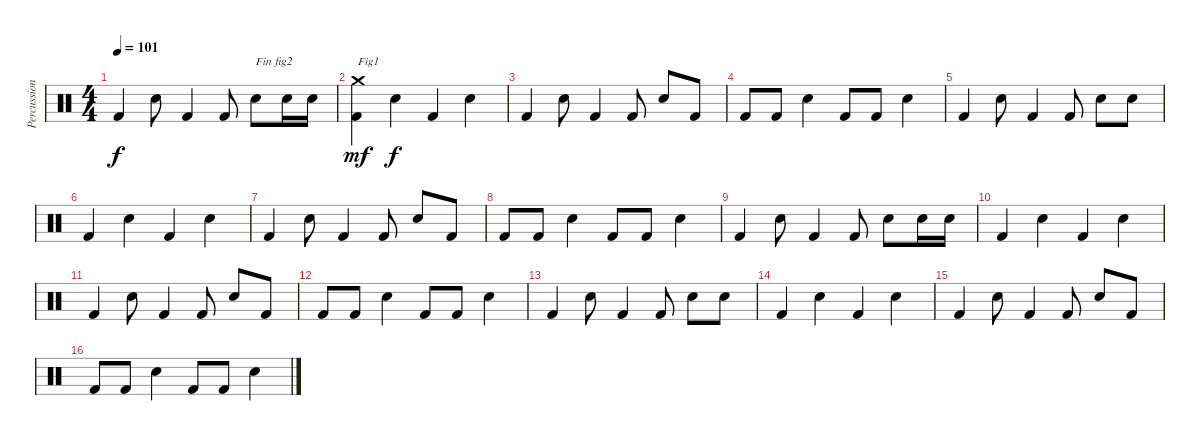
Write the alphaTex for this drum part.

\track ("Percussions" "Percussion") {instrument percussion}
\staff {score}
\articulation defaults
\ts (4 4)
\tempo 101
\clef neutral
\ks c "Kick (hit) 2".4{dy f} "Snare (hit) 2".8 "Kick (hit) 2".4 "Kick (hit) 2".8 "Snare (hit) 2".8{txt "Fin fig2"} "Snare (hit) 2".16 "Snare (hit) 2".16
|
("Kick (hit) 2" "Crash medium (hit)").4{txt "Fig1" dy mf} "Snare (hit) 2".4{dy f} "Kick (hit) 2".4 "Snare (hit) 2".4 |
"Kick (hit) 2".4 "Snare (hit) 2".8 "Kick (hit) 2".4 "Kick (hit) 2".8 "Snare (hit) 2".8 "Kick (hit) 2".8 |
"Kick (hit) 2".8 "Kick (hit) 2".8 "Snare (hit) 2".4 "Kick (hit) 2".8 "Kick (hit) 2".8 "Snare (hit) 2".4 |
"Kick (hit) 2".4 "Snare (hit) 2".8 "Kick (hit) 2".4 "Kick (hit) 2".8 "Snare (hit) 2".8 "Snare (hit) 2".8 |
"Kick (hit) 2".4 "Snare (hit) 2".4 "Kick (hit) 2".4 "Snare (hit) 2".4 |
"Kick (hit) 2".4 "Snare (hit) 2".8 "Kick (hit) 2".4 "Kick (hit) 2".8 "Snare (hit) 2".8 "Kick (hit) 2".8 |
"Kick (hit) 2".8 "Kick (hit) 2".8 "Snare (hit) 2".4 "Kick (hit) 2".8 "Kick (hit) 2".8 "Snare (hit) 2".4 |
"Kick (hit) 2".4 "Snare (hit) 2".8 "Kick (hit) 2".4 "Kick (hit) 2".8 "Snare (hit) 2".8 "Snare (hit) 2".16 "Snare (hit) 2".16 |
"Kick (hit) 2".4 "Snare (hit) 2".4 "Kick (hit) 2".4 "Snare (hit) 2".4 |
"Kick (hit) 2".4 "Snare (hit) 2".8 "Kick (hit) 2".4 "Kick (hit) 2".8 "Snare (hit) 2".8 "Kick (hit) 2".8 |
"Kick (hit) 2".8 "Kick (hit) 2".8 "Snare (hit) 2".4 "Kick (hit) 2".8 "Kick (hit) 2".8 "Snare (hit) 2".4 |
"Kick (hit) 2".4 "Snare (hit) 2".8 "Kick (hit) 2".4 "Kick (hit) 2".8 "Snare (hit) 2".8 "Snare (hit) 2".8 |
"Kick (hit) 2".4 "Snare (hit) 2".4 "Kick (hit) 2".4 "Snare (hit) 2".4 |
"Kick (hit) 2".4 "Snare (hit) 2".8 "Kick (hit) 2".4 "Kick (hit) 2".8 "Snare (hit) 2".8 "Kick (hit) 2".8 |
"Kick (hit) 2".8 "Kick (hit) 2".8 "Snare (hit) 2".4 "Kick (hit) 2".8 "Kick (hit) 2".8 "Snare (hit) 2".4
